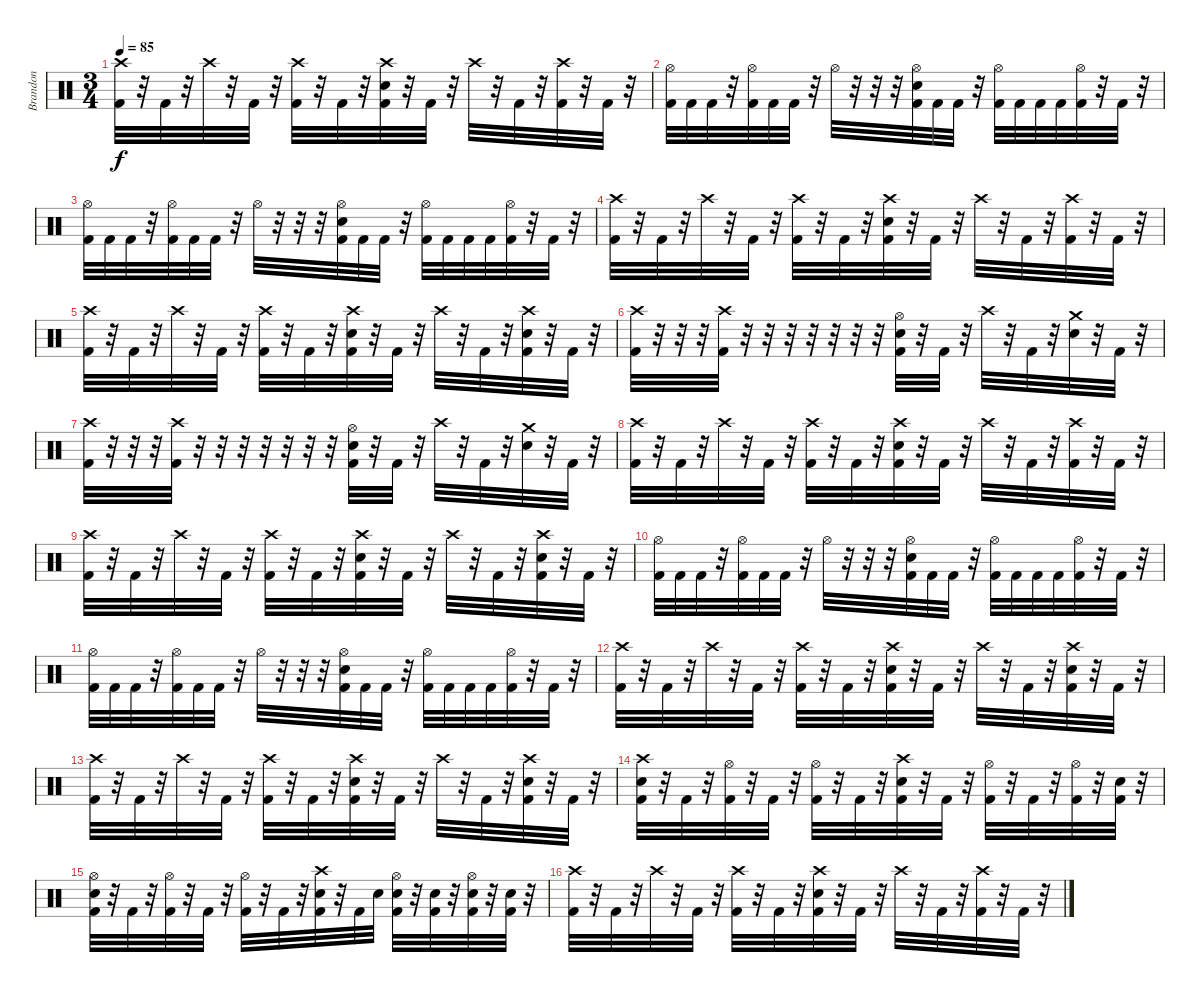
\track ("Brandon" "Brandon") {instrument percussion}
\staff {score}
\articulation defaults
\ts (3 4)
\tempo 85
\clef neutral
\ks c
("Crash high (hit)" "Kick (hit) 2").32{dy f} r.32 "Kick (hit) 2".32 r.32 "Crash high (hit)".32 r.32 "Kick (hit) 2".32 r.32 ("Crash high (hit)" "Kick (hit) 2").32 r.32 "Kick (hit) 2".32 r.32 ("Crash high (hit)" "Electric Snare (hit)" "Kick (hit) 2").32 r.32 "Kick (hit) 2".32 r.32 "Crash high (hit)".32 r.32 "Kick (hit) 2".32 r.32 ("Crash high (hit)" "Kick (hit) 2").32 r.32 "Kick (hit) 2".32 r.32 |
("Hi-Hat (open)" "Kick (hit) 2").32 "Kick (hit) 2".32 "Kick (hit) 2".32 r.32 ("Hi-Hat (open)" "Kick (hit) 2").32 "Kick (hit) 2".32 "Kick (hit) 2".32 r.32 "Hi-Hat (open)".32 r.32 r.32 r.32 ("Hi-Hat (open)" "Electric Snare (hit)" "Kick (hit) 2").32 "Kick (hit) 2".32 "Kick (hit) 2".32 r.32 ("Hi-Hat (open)" "Kick (hit) 2").32 "Kick (hit) 2".32 "Kick (hit) 2".32 "Kick (hit) 2".32 ("Hi-Hat (open)" "Kick (hit) 2").32 r.32 "Kick (hit) 2".32 r.32 |
("Hi-Hat (open)" "Kick (hit) 2").32 "Kick (hit) 2".32 "Kick (hit) 2".32 r.32 ("Hi-Hat (open)" "Kick (hit) 2").32 "Kick (hit) 2".32 "Kick (hit) 2".32 r.32 "Hi-Hat (open)".32 r.32 r.32 r.32 ("Hi-Hat (open)" "Electric Snare (hit)" "Kick (hit) 2").32 "Kick (hit) 2".32 "Kick (hit) 2".32 r.32 ("Hi-Hat (open)" "Kick (hit) 2").32 "Kick (hit) 2".32 "Kick (hit) 2".32 "Kick (hit) 2".32 ("Hi-Hat (open)" "Kick (hit) 2").32 r.32 "Kick (hit) 2".32 r.32 |
("Crash high (hit)" "Kick (hit) 2").32 r.32 "Kick (hit) 2".32 r.32 "Crash high (hit)".32 r.32 "Kick (hit) 2".32 r.32 ("Crash high (hit)" "Kick (hit) 2").32 r.32 "Kick (hit) 2".32 r.32 ("Crash high (hit)" "Electric Snare (hit)" "Kick (hit) 2").32 r.32 "Kick (hit) 2".32 r.32 "Crash high (hit)".32 r.32 "Kick (hit) 2".32 r.32 ("Crash high (hit)" "Kick (hit) 2").32 r.32 "Kick (hit) 2".32 r.32 |
("Crash high (hit)" "Kick (hit) 2").32 r.32 "Kick (hit) 2".32 r.32 "Crash high (hit)".32 r.32 "Kick (hit) 2".32 r.32 ("Crash high (hit)" "Kick (hit) 2").32 r.32 "Kick (hit) 2".32 r.32 ("Crash high (hit)" "Electric Snare (hit)" "Kick (hit) 2").32 r.32 "Kick (hit) 2".32 r.32 "Crash high (hit)".32 r.32 "Kick (hit) 2".32 r.32 ("Crash high (hit)" "Electric Snare (hit)" "Kick (hit) 2").32 r.32 "Kick (hit) 2".32 r.32 |
("Crash high (hit)" "Kick (hit) 2").32 r.32 r.32{volume 0} r.32 ("Crash high (hit)" "Kick (hit) 2").32{volume 16} r.32 r.32{volume 0} r.32 r.32 r.32 r.32 r.32 ("Hi-Hat (open)" "Electric Snare (hit)" "Kick (hit) 2").32{volume 16} r.32 "Kick (hit) 2".32 r.32 "Crash high (hit)".32 r.32 "Kick (hit) 2".32 r.32 ("Crash medium (hit)" "Electric Snare (hit)").32 r.32 "Kick (hit) 2".32 r.32 |
("Crash high (hit)" "Kick (hit) 2").32 r.32 r.32{volume 0} r.32 ("Crash high (hit)" "Kick (hit) 2").32{volume 16} r.32 r.32{volume 0} r.32 r.32 r.32 r.32 r.32 ("Hi-Hat (open)" "Electric Snare (hit)" "Kick (hit) 2").32{volume 16} r.32 "Kick (hit) 2".32 r.32 "Crash high (hit)".32 r.32 "Kick (hit) 2".32 r.32 ("Crash medium (hit)" "Electric Snare (hit)").32 r.32 "Kick (hit) 2".32 r.32 |
("Crash high (hit)" "Kick (hit) 2").32 r.32 "Kick (hit) 2".32 r.32 "Crash high (hit)".32 r.32 "Kick (hit) 2".32 r.32 ("Crash high (hit)" "Kick (hit) 2").32 r.32 "Kick (hit) 2".32 r.32 ("Crash high (hit)" "Electric Snare (hit)" "Kick (hit) 2").32 r.32 "Kick (hit) 2".32 r.32 "Crash high (hit)".32 r.32 "Kick (hit) 2".32 r.32 ("Crash high (hit)" "Kick (hit) 2").32 r.32 "Kick (hit) 2".32 r.32 |
("Crash high (hit)" "Kick (hit) 2").32 r.32 "Kick (hit) 2".32 r.32 "Crash high (hit)".32 r.32 "Kick (hit) 2".32 r.32 ("Crash high (hit)" "Kick (hit) 2").32 r.32 "Kick (hit) 2".32 r.32 ("Crash high (hit)" "Electric Snare (hit)" "Kick (hit) 2").32 r.32 "Kick (hit) 2".32 r.32 "Crash high (hit)".32 r.32 "Kick (hit) 2".32 r.32 ("Crash high (hit)" "Electric Snare (hit)" "Kick (hit) 2").32 r.32 "Kick (hit) 2".32 r.32 |
("Hi-Hat (open)" "Kick (hit) 2").32 "Kick (hit) 2".32 "Kick (hit) 2".32 r.32 ("Hi-Hat (open)" "Kick (hit) 2").32 "Kick (hit) 2".32 "Kick (hit) 2".32 r.32 "Hi-Hat (open)".32 r.32 r.32 r.32 ("Hi-Hat (open)" "Electric Snare (hit)" "Kick (hit) 2").32 "Kick (hit) 2".32 "Kick (hit) 2".32 r.32 ("Hi-Hat (open)" "Kick (hit) 2").32 "Kick (hit) 2".32 "Kick (hit) 2".32 "Kick (hit) 2".32 ("Hi-Hat (open)" "Kick (hit) 2").32 r.32 "Kick (hit) 2".32 r.32 |
("Hi-Hat (open)" "Kick (hit) 2").32 "Kick (hit) 2".32 "Kick (hit) 2".32 r.32 ("Hi-Hat (open)" "Kick (hit) 2").32 "Kick (hit) 2".32 "Kick (hit) 2".32 r.32 "Hi-Hat (open)".32 r.32 r.32 r.32 ("Hi-Hat (open)" "Electric Snare (hit)" "Kick (hit) 2").32 "Kick (hit) 2".32 "Kick (hit) 2".32 r.32 ("Hi-Hat (open)" "Kick (hit) 2").32 "Kick (hit) 2".32 "Kick (hit) 2".32 "Kick (hit) 2".32 ("Hi-Hat (open)" "Kick (hit) 2").32 r.32 "Kick (hit) 2".32 r.32 |
("Crash high (hit)" "Kick (hit) 2").32 r.32 "Kick (hit) 2".32 r.32 "Crash high (hit)".32 r.32 "Kick (hit) 2".32 r.32 ("Crash high (hit)" "Kick (hit) 2").32 r.32 "Kick (hit) 2".32 r.32 ("Crash high (hit)" "Electric Snare (hit)" "Kick (hit) 2").32 r.32 "Kick (hit) 2".32 r.32 "Crash high (hit)".32 r.32 "Kick (hit) 2".32 r.32 ("Crash high (hit)" "Electric Snare (hit)" "Kick (hit) 2").32 r.32 "Kick (hit) 2".32 r.32 |
("Crash high (hit)" "Kick (hit) 2").32 r.32 "Kick (hit) 2".32 r.32 "Crash high (hit)".32 r.32 "Kick (hit) 2".32 r.32 ("Crash high (hit)" "Kick (hit) 2").32 r.32 "Kick (hit) 2".32 r.32 ("Crash high (hit)" "Electric Snare (hit)" "Kick (hit) 2").32 r.32 "Kick (hit) 2".32 r.32 "Crash high (hit)".32 r.32 "Kick (hit) 2".32 r.32 ("Crash high (hit)" "Electric Snare (hit)" "Kick (hit) 2").32 r.32 "Kick (hit) 2".32 r.32 |
("Crash high (hit)" "Electric Snare (hit)" "Kick (hit) 2").32 r.32 "Kick (hit) 2".32 r.32 ("Hi-Hat (open)" "Kick (hit) 2").32 r.32 "Kick (hit) 2".32 r.32 ("Hi-Hat (open)" "Kick (hit) 2").32 r.32 "Kick (hit) 2".32 r.32 ("Crash high (hit)" "Electric Snare (hit)" "Kick (hit) 2").32 r.32 "Kick (hit) 2".32 r.32 ("Hi-Hat (open)" "Kick (hit) 2").32 r.32 "Kick (hit) 2".32 r.32 ("Hi-Hat (open)" "Kick (hit) 2").32 r.32 ("Electric Snare (hit)" "Kick (hit) 2").32 r.32 |
("Hi-Hat (open)" "Electric Snare (hit)" "Kick (hit) 2").32 r.32 "Kick (hit) 2".32 r.32 ("Hi-Hat (open)" "Kick (hit) 2").32 r.32 "Kick (hit) 2".32 r.32 ("Hi-Hat (open)" "Kick (hit) 2").32 r.32 "Kick (hit) 2".32 r.32 ("Crash high (hit)" "Electric Snare (hit)" "Kick (hit) 2").32 r.32 "Kick (hit) 2".32 "Electric Snare (hit)".32 ("Hi-Hat (open)" "Electric Snare (hit)" "Kick (hit) 2").32 r.32 ("Electric Snare (hit)" "Kick (hit) 2").32 r.32 ("Hi-Hat (open)" "Electric Snare (hit)" "Kick (hit) 2").32 r.32 ("Electric Snare (hit)" "Kick (hit) 2").32 r.32 |
("Crash high (hit)" "Kick (hit) 2").32 r.32 "Kick (hit) 2".32 r.32 "Crash high (hit)".32 r.32 "Kick (hit) 2".32 r.32 ("Crash high (hit)" "Kick (hit) 2").32 r.32 "Kick (hit) 2".32 r.32 ("Crash high (hit)" "Electric Snare (hit)" "Kick (hit) 2").32 r.32 "Kick (hit) 2".32 r.32 "Crash high (hit)".32 r.32 "Kick (hit) 2".32 r.32 ("Crash high (hit)" "Kick (hit) 2").32 r.32 "Kick (hit) 2".32 r.32
